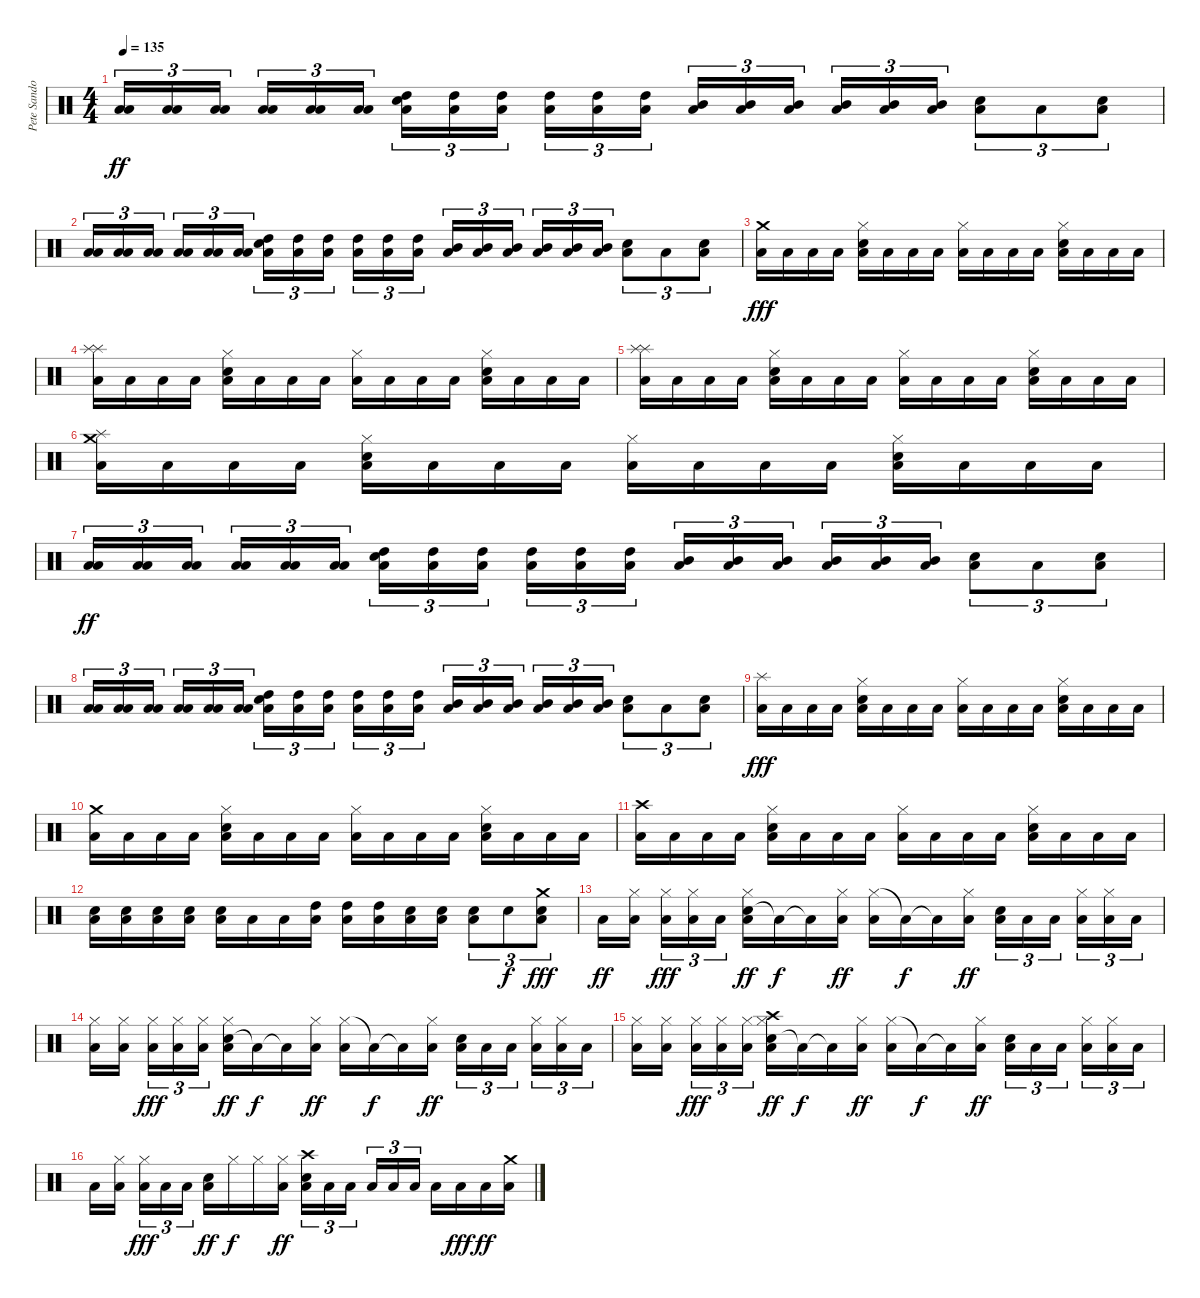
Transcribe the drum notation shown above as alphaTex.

\track ("Pete Sandoval" "Pete Sando") {instrument percussion}
\staff {score}
\articulation defaults
\ts (4 4)
\tempo 135
\clef neutral
\ks c
("Low Tom (hit)" "Low Floor Tom (hit)").16{tu (3 2) dy ff} ("Low Tom (hit)" "Low Floor Tom (hit)").16{tu (3 2)} ("Low Tom (hit)" "Low Floor Tom (hit)").16{tu (3 2) beam splitsecondary} ("Low Tom (hit)" "Low Floor Tom (hit)").16{tu (3 2)} ("Low Tom (hit)" "Low Floor Tom (hit)").16{tu (3 2)} ("Low Tom (hit)" "Low Floor Tom (hit)").16{tu (3 2)} ("Electric Snare (hit)" "High Tom (hit)" "Low Floor Tom (hit)").16{tu (3 2)} ("High Tom (hit)" "Low Floor Tom (hit)").16{tu (3 2)} ("High Tom (hit)" "Low Floor Tom (hit)").16{tu (3 2) beam splitsecondary} ("High Tom (hit)" "Low Floor Tom (hit)").16{tu (3 2)} ("High Tom (hit)" "Low Floor Tom (hit)").16{tu (3 2)} ("High Tom (hit)" "Low Floor Tom (hit)").16{tu (3 2)} ("Mid Tom (hit)" "Low Floor Tom (hit)").16{tu (3 2)} ("Mid Tom (hit)" "Low Floor Tom (hit)").16{tu (3 2)} ("Mid Tom (hit)" "Low Floor Tom (hit)").16{tu (3 2) beam splitsecondary} ("Mid Tom (hit)" "Low Floor Tom (hit)").16{tu (3 2)} ("Mid Tom (hit)" "Low Floor Tom (hit)").16{tu (3 2)} ("Mid Tom (hit)" "Low Floor Tom (hit)").16{tu (3 2)} ("Electric Snare (hit)" "Low Floor Tom (hit)").8{tu (3 2)} "Low Floor Tom (hit)".8{tu (3 2)} ("Electric Snare (hit)" "Low Floor Tom (hit)").8{tu (3 2)} |
("Low Tom (hit)" "Low Floor Tom (hit)").16{tu (3 2)} ("Low Tom (hit)" "Low Floor Tom (hit)").16{tu (3 2)} ("Low Tom (hit)" "Low Floor Tom (hit)").16{tu (3 2) beam splitsecondary} ("Low Tom (hit)" "Low Floor Tom (hit)").16{tu (3 2)} ("Low Tom (hit)" "Low Floor Tom (hit)").16{tu (3 2)} ("Low Tom (hit)" "Low Floor Tom (hit)").16{tu (3 2)} ("Electric Snare (hit)" "High Tom (hit)" "Low Floor Tom (hit)").16{tu (3 2)} ("High Tom (hit)" "Low Floor Tom (hit)").16{tu (3 2)} ("High Tom (hit)" "Low Floor Tom (hit)").16{tu (3 2) beam splitsecondary} ("High Tom (hit)" "Low Floor Tom (hit)").16{tu (3 2)} ("High Tom (hit)" "Low Floor Tom (hit)").16{tu (3 2)} ("High Tom (hit)" "Low Floor Tom (hit)").16{tu (3 2)} ("Mid Tom (hit)" "Low Floor Tom (hit)").16{tu (3 2)} ("Mid Tom (hit)" "Low Floor Tom (hit)").16{tu (3 2)} ("Mid Tom (hit)" "Low Floor Tom (hit)").16{tu (3 2) beam splitsecondary} ("Mid Tom (hit)" "Low Floor Tom (hit)").16{tu (3 2)} ("Mid Tom (hit)" "Low Floor Tom (hit)").16{tu (3 2)} ("Mid Tom (hit)" "Low Floor Tom (hit)").16{tu (3 2)} ("Electric Snare (hit)" "Low Floor Tom (hit)").8{tu (3 2)} "Low Floor Tom (hit)".8{tu (3 2)} ("Electric Snare (hit)" "Low Floor Tom (hit)").8{tu (3 2)} |
("Crash medium (hit)" "Low Floor Tom (hit)").16{dy fff} "Low Floor Tom (hit)".16 "Low Floor Tom (hit)".16 "Low Floor Tom (hit)".16 ("Electric Snare (hit)" "Hi-Hat (closed)" "Low Floor Tom (hit)").16 "Low Floor Tom (hit)".16 "Low Floor Tom (hit)".16 "Low Floor Tom (hit)".16 ("Hi-Hat (closed)" "Low Floor Tom (hit)").16 "Low Floor Tom (hit)".16 "Low Floor Tom (hit)".16 "Low Floor Tom (hit)".16 ("Electric Snare (hit)" "Hi-Hat (closed)" "Low Floor Tom (hit)").16 "Low Floor Tom (hit)".16 "Low Floor Tom (hit)".16 "Low Floor Tom (hit)".16 |
("Splash (hit)" "Splash (hit)" "Low Floor Tom (hit)").16 "Low Floor Tom (hit)".16 "Low Floor Tom (hit)".16 "Low Floor Tom (hit)".16 ("Electric Snare (hit)" "Hi-Hat (closed)" "Low Floor Tom (hit)").16 "Low Floor Tom (hit)".16 "Low Floor Tom (hit)".16 "Low Floor Tom (hit)".16 ("Hi-Hat (closed)" "Low Floor Tom (hit)").16 "Low Floor Tom (hit)".16 "Low Floor Tom (hit)".16 "Low Floor Tom (hit)".16 ("Electric Snare (hit)" "Hi-Hat (closed)" "Low Floor Tom (hit)").16 "Low Floor Tom (hit)".16 "Low Floor Tom (hit)".16 "Low Floor Tom (hit)".16 |
("Splash (hit)" "Splash (hit)" "Low Floor Tom (hit)").16 "Low Floor Tom (hit)".16 "Low Floor Tom (hit)".16 "Low Floor Tom (hit)".16 ("Electric Snare (hit)" "Hi-Hat (closed)" "Low Floor Tom (hit)").16 "Low Floor Tom (hit)".16 "Low Floor Tom (hit)".16 "Low Floor Tom (hit)".16 ("Hi-Hat (closed)" "Low Floor Tom (hit)").16 "Low Floor Tom (hit)".16 "Low Floor Tom (hit)".16 "Low Floor Tom (hit)".16 ("Electric Snare (hit)" "Hi-Hat (closed)" "Low Floor Tom (hit)").16 "Low Floor Tom (hit)".16 "Low Floor Tom (hit)".16 "Low Floor Tom (hit)".16 |
("Crash medium (hit)" "Splash (hit)" "Low Floor Tom (hit)").16 "Low Floor Tom (hit)".16 "Low Floor Tom (hit)".16 "Low Floor Tom (hit)".16 ("Electric Snare (hit)" "Hi-Hat (closed)" "Low Floor Tom (hit)").16 "Low Floor Tom (hit)".16 "Low Floor Tom (hit)".16 "Low Floor Tom (hit)".16 ("Hi-Hat (closed)" "Low Floor Tom (hit)").16 "Low Floor Tom (hit)".16 "Low Floor Tom (hit)".16 "Low Floor Tom (hit)".16 ("Electric Snare (hit)" "Hi-Hat (closed)" "Low Floor Tom (hit)").16 "Low Floor Tom (hit)".16 "Low Floor Tom (hit)".16 "Low Floor Tom (hit)".16 |
("Low Tom (hit)" "Low Floor Tom (hit)").16{tu (3 2) dy ff} ("Low Tom (hit)" "Low Floor Tom (hit)").16{tu (3 2)} ("Low Tom (hit)" "Low Floor Tom (hit)").16{tu (3 2) beam splitsecondary} ("Low Tom (hit)" "Low Floor Tom (hit)").16{tu (3 2)} ("Low Tom (hit)" "Low Floor Tom (hit)").16{tu (3 2)} ("Low Tom (hit)" "Low Floor Tom (hit)").16{tu (3 2)} ("Electric Snare (hit)" "High Tom (hit)" "Low Floor Tom (hit)").16{tu (3 2)} ("High Tom (hit)" "Low Floor Tom (hit)").16{tu (3 2)} ("High Tom (hit)" "Low Floor Tom (hit)").16{tu (3 2) beam splitsecondary} ("High Tom (hit)" "Low Floor Tom (hit)").16{tu (3 2)} ("High Tom (hit)" "Low Floor Tom (hit)").16{tu (3 2)} ("High Tom (hit)" "Low Floor Tom (hit)").16{tu (3 2)} ("Mid Tom (hit)" "Low Floor Tom (hit)").16{tu (3 2)} ("Mid Tom (hit)" "Low Floor Tom (hit)").16{tu (3 2)} ("Mid Tom (hit)" "Low Floor Tom (hit)").16{tu (3 2) beam splitsecondary} ("Mid Tom (hit)" "Low Floor Tom (hit)").16{tu (3 2)} ("Mid Tom (hit)" "Low Floor Tom (hit)").16{tu (3 2)} ("Mid Tom (hit)" "Low Floor Tom (hit)").16{tu (3 2)} ("Electric Snare (hit)" "Low Floor Tom (hit)").8{tu (3 2)} "Low Floor Tom (hit)".8{tu (3 2)} ("Electric Snare (hit)" "Low Floor Tom (hit)").8{tu (3 2)} |
("Low Tom (hit)" "Low Floor Tom (hit)").16{tu (3 2)} ("Low Tom (hit)" "Low Floor Tom (hit)").16{tu (3 2)} ("Low Tom (hit)" "Low Floor Tom (hit)").16{tu (3 2) beam splitsecondary} ("Low Tom (hit)" "Low Floor Tom (hit)").16{tu (3 2)} ("Low Tom (hit)" "Low Floor Tom (hit)").16{tu (3 2)} ("Low Tom (hit)" "Low Floor Tom (hit)").16{tu (3 2)} ("Electric Snare (hit)" "High Tom (hit)" "Low Floor Tom (hit)").16{tu (3 2)} ("High Tom (hit)" "Low Floor Tom (hit)").16{tu (3 2)} ("High Tom (hit)" "Low Floor Tom (hit)").16{tu (3 2) beam splitsecondary} ("High Tom (hit)" "Low Floor Tom (hit)").16{tu (3 2)} ("High Tom (hit)" "Low Floor Tom (hit)").16{tu (3 2)} ("High Tom (hit)" "Low Floor Tom (hit)").16{tu (3 2)} ("Mid Tom (hit)" "Low Floor Tom (hit)").16{tu (3 2)} ("Mid Tom (hit)" "Low Floor Tom (hit)").16{tu (3 2)} ("Mid Tom (hit)" "Low Floor Tom (hit)").16{tu (3 2) beam splitsecondary} ("Mid Tom (hit)" "Low Floor Tom (hit)").16{tu (3 2)} ("Mid Tom (hit)" "Low Floor Tom (hit)").16{tu (3 2)} ("Mid Tom (hit)" "Low Floor Tom (hit)").16{tu (3 2)} ("Electric Snare (hit)" "Low Floor Tom (hit)").8{tu (3 2)} "Low Floor Tom (hit)".8{tu (3 2)} ("Electric Snare (hit)" "Low Floor Tom (hit)").8{tu (3 2)} |
("Splash (hit)" "Low Floor Tom (hit)").16{dy fff} "Low Floor Tom (hit)".16 "Low Floor Tom (hit)".16 "Low Floor Tom (hit)".16 ("Electric Snare (hit)" "Hi-Hat (closed)" "Low Floor Tom (hit)").16 "Low Floor Tom (hit)".16 "Low Floor Tom (hit)".16 "Low Floor Tom (hit)".16 ("Hi-Hat (closed)" "Low Floor Tom (hit)").16 "Low Floor Tom (hit)".16 "Low Floor Tom (hit)".16 "Low Floor Tom (hit)".16 ("Electric Snare (hit)" "Hi-Hat (closed)" "Low Floor Tom (hit)").16 "Low Floor Tom (hit)".16 "Low Floor Tom (hit)".16 "Low Floor Tom (hit)".16 |
("Crash medium (hit)" "Low Floor Tom (hit)").16 "Low Floor Tom (hit)".16 "Low Floor Tom (hit)".16 "Low Floor Tom (hit)".16 ("Electric Snare (hit)" "Hi-Hat (closed)" "Low Floor Tom (hit)").16 "Low Floor Tom (hit)".16 "Low Floor Tom (hit)".16 "Low Floor Tom (hit)".16 ("Hi-Hat (closed)" "Low Floor Tom (hit)").16 "Low Floor Tom (hit)".16 "Low Floor Tom (hit)".16 "Low Floor Tom (hit)".16 ("Electric Snare (hit)" "Hi-Hat (closed)" "Low Floor Tom (hit)").16 "Low Floor Tom (hit)".16 "Low Floor Tom (hit)".16 "Low Floor Tom (hit)".16 |
("Crash high (hit)" "Low Floor Tom (hit)").16 "Low Floor Tom (hit)".16 "Low Floor Tom (hit)".16 "Low Floor Tom (hit)".16 ("Electric Snare (hit)" "Hi-Hat (closed)" "Low Floor Tom (hit)").16 "Low Floor Tom (hit)".16 "Low Floor Tom (hit)".16 "Low Floor Tom (hit)".16 ("Hi-Hat (closed)" "Low Floor Tom (hit)").16 "Low Floor Tom (hit)".16 "Low Floor Tom (hit)".16 "Low Floor Tom (hit)".16 ("Electric Snare (hit)" "Hi-Hat (closed)" "Low Floor Tom (hit)").16 "Low Floor Tom (hit)".16 "Low Floor Tom (hit)".16 "Low Floor Tom (hit)".16 |
("Electric Snare (hit)" "Low Floor Tom (hit)").16 ("Electric Snare (hit)" "Low Floor Tom (hit)").16 ("Electric Snare (hit)" "Low Floor Tom (hit)").16 ("Electric Snare (hit)" "Low Floor Tom (hit)").16 ("Electric Snare (hit)" "Low Floor Tom (hit)").16 "Low Floor Tom (hit)".16 "Low Floor Tom (hit)".16 ("High Tom (hit)" "Low Floor Tom (hit)").16 ("High Tom (hit)" "Low Floor Tom (hit)").16 ("High Tom (hit)" "Low Floor Tom (hit)").16 ("Electric Snare (hit)" "Low Floor Tom (hit)").16 ("Electric Snare (hit)" "Low Floor Tom (hit)").16 ("Electric Snare (hit)" "Low Floor Tom (hit)").8{tu (3 2)} "Electric Snare (hit)".8{tu (3 2) dy f} ("Crash medium (hit)" "Electric Snare (hit)" "Low Floor Tom (hit)").8{tu (3 2) dy fff} |
"Low Floor Tom (hit)".16{dy ff} ("Hi-Hat (closed)" "Low Floor Tom (hit)").16{beam splitsecondary} ("Hi-Hat (closed)" "Low Floor Tom (hit)").16{tu (3 2) dy fff} ("Hi-Hat (closed)" "Low Floor Tom (hit)").16{tu (3 2)} "Low Floor Tom (hit)".16{tu (3 2)} ("Electric Snare (hit)" "Hi-Hat (closed)" "Low Floor Tom (hit)").16{dy ff} "Low Floor Tom (hit)"{t}.16{dy f} "Low Floor Tom (hit)"{t}.16 ("Hi-Hat (closed)" "Low Floor Tom (hit)").16{dy ff} ("Hi-Hat (closed)" "Low Floor Tom (hit)").16 "Low Floor Tom (hit)"{t}.16{dy f} "Low Floor Tom (hit)"{t}.16 ("Hi-Hat (closed)" "Low Floor Tom (hit)").16{dy ff} ("Electric Snare (hit)" "Low Floor Tom (hit)").16{tu (3 2)} "Low Floor Tom (hit)".16{tu (3 2)} "Low Floor Tom (hit)".16{tu (3 2) beam splitsecondary} ("Hi-Hat (closed)" "Low Floor Tom (hit)").16{tu (3 2)} ("Hi-Hat (closed)" "Low Floor Tom (hit)").16{tu (3 2)} "Low Floor Tom (hit)".16{tu (3 2)} |
("Hi-Hat (closed)" "Low Floor Tom (hit)").16 ("Hi-Hat (closed)" "Low Floor Tom (hit)").16{beam splitsecondary} ("Hi-Hat (closed)" "Low Floor Tom (hit)").16{tu (3 2) dy fff} ("Hi-Hat (closed)" "Low Floor Tom (hit)").16{tu (3 2)} ("Hi-Hat (closed)" "Low Floor Tom (hit)").16{tu (3 2)} ("Electric Snare (hit)" "Hi-Hat (closed)" "Low Floor Tom (hit)").16{dy ff} "Low Floor Tom (hit)"{t}.16{dy f} "Low Floor Tom (hit)"{t}.16 ("Hi-Hat (closed)" "Low Floor Tom (hit)").16{dy ff} ("Hi-Hat (closed)" "Low Floor Tom (hit)").16 "Low Floor Tom (hit)"{t}.16{dy f} "Low Floor Tom (hit)"{t}.16 ("Hi-Hat (closed)" "Low Floor Tom (hit)").16{dy ff} ("Electric Snare (hit)" "Low Floor Tom (hit)").16{tu (3 2)} "Low Floor Tom (hit)".16{tu (3 2)} "Low Floor Tom (hit)".16{tu (3 2) beam splitsecondary} ("Hi-Hat (closed)" "Low Floor Tom (hit)").16{tu (3 2)} ("Hi-Hat (closed)" "Low Floor Tom (hit)").16{tu (3 2)} "Low Floor Tom (hit)".16{tu (3 2)} |
("Hi-Hat (closed)" "Low Floor Tom (hit)").16 ("Hi-Hat (closed)" "Low Floor Tom (hit)").16{beam splitsecondary} ("Hi-Hat (closed)" "Low Floor Tom (hit)").16{tu (3 2) dy fff} ("Hi-Hat (closed)" "Low Floor Tom (hit)").16{tu (3 2)} ("Hi-Hat (closed)" "Low Floor Tom (hit)").16{tu (3 2)} ("Electric Snare (hit)" "Crash high (hit)" "Hi-Hat (closed)" "Low Floor Tom (hit)").16{dy ff} "Low Floor Tom (hit)"{t}.16{dy f} "Low Floor Tom (hit)"{t}.16 ("Hi-Hat (closed)" "Low Floor Tom (hit)").16{dy ff} ("Hi-Hat (closed)" "Low Floor Tom (hit)").16 "Low Floor Tom (hit)"{t}.16{dy f} "Low Floor Tom (hit)"{t}.16 ("Hi-Hat (closed)" "Low Floor Tom (hit)").16{dy ff} ("Electric Snare (hit)" "Low Floor Tom (hit)").16{tu (3 2)} "Low Floor Tom (hit)".16{tu (3 2)} "Low Floor Tom (hit)".16{tu (3 2) beam splitsecondary} ("Hi-Hat (closed)" "Low Floor Tom (hit)").16{tu (3 2)} ("Hi-Hat (closed)" "Low Floor Tom (hit)").16{tu (3 2)} "Low Floor Tom (hit)".16{tu (3 2)} |
"Low Floor Tom (hit)".16 ("Hi-Hat (closed)" "Low Floor Tom (hit)").16{beam splitsecondary} ("Hi-Hat (closed)" "Low Floor Tom (hit)").16{tu (3 2) dy fff} "Low Floor Tom (hit)".16{tu (3 2)} "Low Floor Tom (hit)".16{tu (3 2)} ("Electric Snare (hit)" "Low Floor Tom (hit)").16{dy ff} "Hi-Hat (closed)".16{dy f} "Hi-Hat (closed)".16 ("Hi-Hat (closed)" "Low Floor Tom (hit)").16{dy ff} ("Electric Snare (hit)" "Crash high (hit)" "Low Floor Tom (hit)").16{tu (3 2)} "Low Floor Tom (hit)".16{tu (3 2)} "Low Floor Tom (hit)".16{tu (3 2) beam splitsecondary} "Low Floor Tom (hit)".16{tu (3 2)} "Low Floor Tom (hit)".16{tu (3 2)} "Low Floor Tom (hit)".16{tu (3 2)} "Low Floor Tom (hit)".16 "Low Floor Tom (hit)".16{dy fff} "Low Floor Tom (hit)".16{dy ff} ("Crash medium (hit)" "Low Floor Tom (hit)").16
